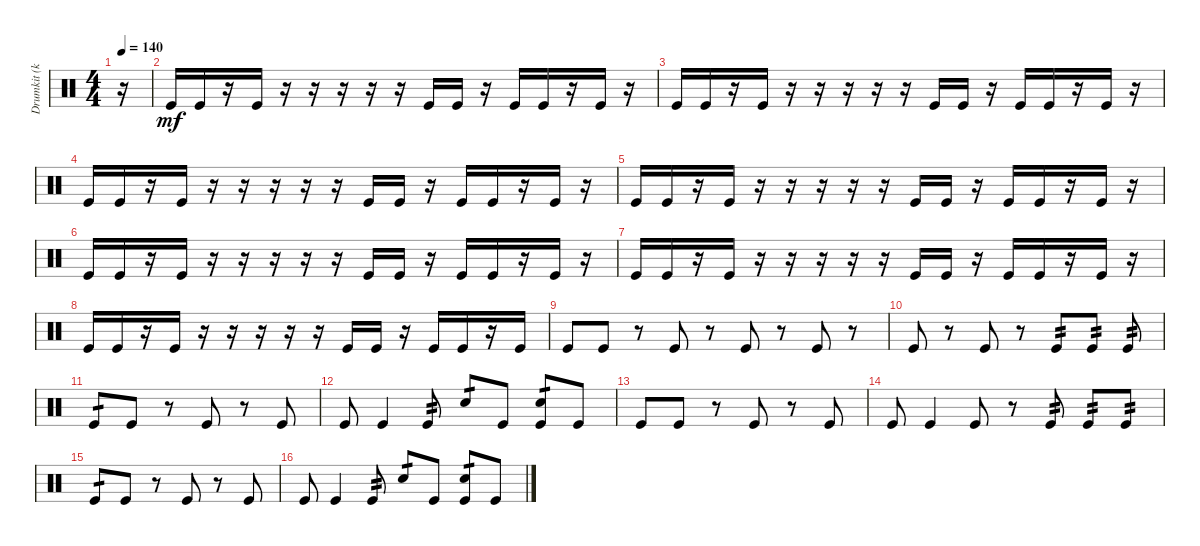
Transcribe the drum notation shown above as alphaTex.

\track ("Drumkit (kicks)" "Drumkit (k") {instrument percussion}
\staff {score}
\articulation defaults
\ts (4 4)
\tempo 140
\clef neutral
\ks c
r.16{dy mf} |
"Kick (hit)".16 "Kick (hit)".16 r.16 "Kick (hit)".16 r.16 r.16 r.16 r.16 r.16 "Kick (hit)".16 "Kick (hit)".16 r.16 "Kick (hit)".16 "Kick (hit)".16 r.16 "Kick (hit)".16 r.16 |
"Kick (hit)".16 "Kick (hit)".16 r.16 "Kick (hit)".16 r.16 r.16 r.16 r.16 r.16 "Kick (hit)".16 "Kick (hit)".16 r.16 "Kick (hit)".16 "Kick (hit)".16 r.16 "Kick (hit)".16 r.16 |
"Kick (hit)".16 "Kick (hit)".16 r.16 "Kick (hit)".16 r.16 r.16 r.16 r.16 r.16 "Kick (hit)".16 "Kick (hit)".16 r.16 "Kick (hit)".16 "Kick (hit)".16 r.16 "Kick (hit)".16 r.16 |
"Kick (hit)".16 "Kick (hit)".16 r.16 "Kick (hit)".16 r.16 r.16 r.16 r.16 r.16 "Kick (hit)".16 "Kick (hit)".16 r.16 "Kick (hit)".16 "Kick (hit)".16 r.16 "Kick (hit)".16 r.16 |
"Kick (hit)".16 "Kick (hit)".16 r.16 "Kick (hit)".16 r.16 r.16 r.16 r.16 r.16 "Kick (hit)".16 "Kick (hit)".16 r.16 "Kick (hit)".16 "Kick (hit)".16 r.16 "Kick (hit)".16 r.16 |
"Kick (hit)".16 "Kick (hit)".16 r.16 "Kick (hit)".16 r.16 r.16 r.16 r.16 r.16 "Kick (hit)".16 "Kick (hit)".16 r.16 "Kick (hit)".16 "Kick (hit)".16 r.16 "Kick (hit)".16 r.16 |
"Kick (hit)".16 "Kick (hit)".16 r.16 "Kick (hit)".16 r.16 r.16 r.16 r.16 r.16 "Kick (hit)".16 "Kick (hit)".16 r.16 "Kick (hit)".16 "Kick (hit)".16 r.16 "Kick (hit)".16 |
"Kick (hit)".8 "Kick (hit)".8 r.8 "Kick (hit)".8 r.8 "Kick (hit)".8 r.8 "Kick (hit)".8 r.8 |
"Kick (hit)".8 r.8 "Kick (hit)".8 r.8 "Kick (hit)".8{tp 2} "Kick (hit)".8{tp 2} "Kick (hit)".8{tp 2} |
"Kick (hit)".8{tp 1} "Kick (hit)".8 r.8 "Kick (hit)".8 r.8 "Kick (hit)".8 |
"Kick (hit)".8 "Kick (hit)".4 "Kick (hit)".8{tp 2} "Snare (hit) 2".8{tp 1} "Kick (hit)".8 ("Kick (hit)" "Snare (hit) 2").8{tp 1} "Kick (hit)".8 |
"Kick (hit)".8 "Kick (hit)".8 r.8 "Kick (hit)".8 r.8 "Kick (hit)".8 |
"Kick (hit)".8 "Kick (hit)".4 "Kick (hit)".8 r.8 "Kick (hit)".8{tp 2} "Kick (hit)".8{tp 2} "Kick (hit)".8{tp 2} |
"Kick (hit)".8{tp 1} "Kick (hit)".8 r.8 "Kick (hit)".8 r.8 "Kick (hit)".8 |
"Kick (hit)".8 "Kick (hit)".4 "Kick (hit)".8{tp 2} "Snare (hit) 2".8{tp 1} "Kick (hit)".8 ("Kick (hit)" "Snare (hit) 2").8{tp 1} "Kick (hit)".8
